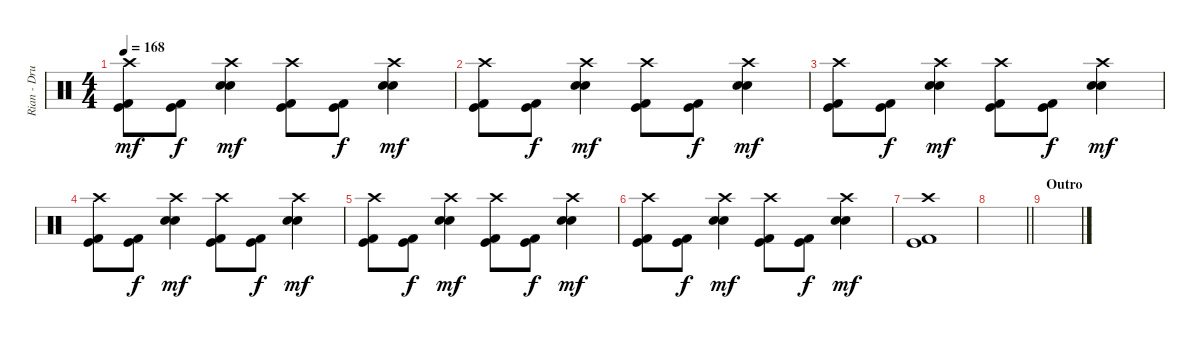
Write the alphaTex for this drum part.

\track ("Rian - Drums" "Rian - Dru") {instrument percussion}
\staff {score}
\articulation defaults
\ts (4 4)
\tempo 168
\clef neutral
\ks c
("Kick (hit) 2" "Kick (hit)" "Crash high (hit)").8{dy mf} ("Kick (hit) 2" "Kick (hit)").8{dy f} ("Electric Snare (hit)" "Electric Snare (hit)" "Crash high (hit)").4{dy mf} ("Kick (hit) 2" "Kick (hit)" "Crash high (hit)").8 ("Kick (hit) 2" "Kick (hit)").8{dy f} ("Electric Snare (hit)" "Electric Snare (hit)" "Crash high (hit)").4{dy mf} |
("Kick (hit) 2" "Kick (hit)" "Crash high (hit)").8 ("Kick (hit) 2" "Kick (hit)").8{dy f} ("Electric Snare (hit)" "Electric Snare (hit)" "Crash high (hit)").4{dy mf} ("Kick (hit) 2" "Kick (hit)" "Crash high (hit)").8 ("Kick (hit) 2" "Kick (hit)").8{dy f} ("Electric Snare (hit)" "Electric Snare (hit)" "Crash high (hit)").4{dy mf} |
("Kick (hit) 2" "Kick (hit)" "Crash high (hit)").8 ("Kick (hit) 2" "Kick (hit)").8{dy f} ("Electric Snare (hit)" "Electric Snare (hit)" "Crash high (hit)").4{dy mf} ("Kick (hit) 2" "Kick (hit)" "Crash high (hit)").8 ("Kick (hit) 2" "Kick (hit)").8{dy f} ("Electric Snare (hit)" "Electric Snare (hit)" "Crash high (hit)").4{dy mf} |
("Kick (hit) 2" "Kick (hit)" "Crash high (hit)").8 ("Kick (hit) 2" "Kick (hit)").8{dy f} ("Electric Snare (hit)" "Electric Snare (hit)" "Crash high (hit)").4{dy mf} ("Kick (hit) 2" "Kick (hit)" "Crash high (hit)").8 ("Kick (hit) 2" "Kick (hit)").8{dy f} ("Electric Snare (hit)" "Electric Snare (hit)" "Crash high (hit)").4{dy mf} |
("Kick (hit) 2" "Kick (hit)" "Crash high (hit)").8 ("Kick (hit) 2" "Kick (hit)").8{dy f} ("Electric Snare (hit)" "Electric Snare (hit)" "Crash high (hit)").4{dy mf} ("Kick (hit) 2" "Kick (hit)" "Crash high (hit)").8 ("Kick (hit) 2" "Kick (hit)").8{dy f} ("Electric Snare (hit)" "Electric Snare (hit)" "Crash high (hit)").4{dy mf} |
("Kick (hit) 2" "Kick (hit)" "Crash high (hit)").8 ("Kick (hit) 2" "Kick (hit)").8{dy f} ("Electric Snare (hit)" "Electric Snare (hit)" "Crash high (hit)").4{dy mf} ("Kick (hit) 2" "Kick (hit)" "Crash high (hit)").8 ("Kick (hit) 2" "Kick (hit)").8{dy f} ("Electric Snare (hit)" "Electric Snare (hit)" "Crash high (hit)").4{dy mf} |
("Kick (hit) 2" "Kick (hit)" "Crash high (hit)").1 |
\barLineRight lightlight
|
\section ("" "Outro")
